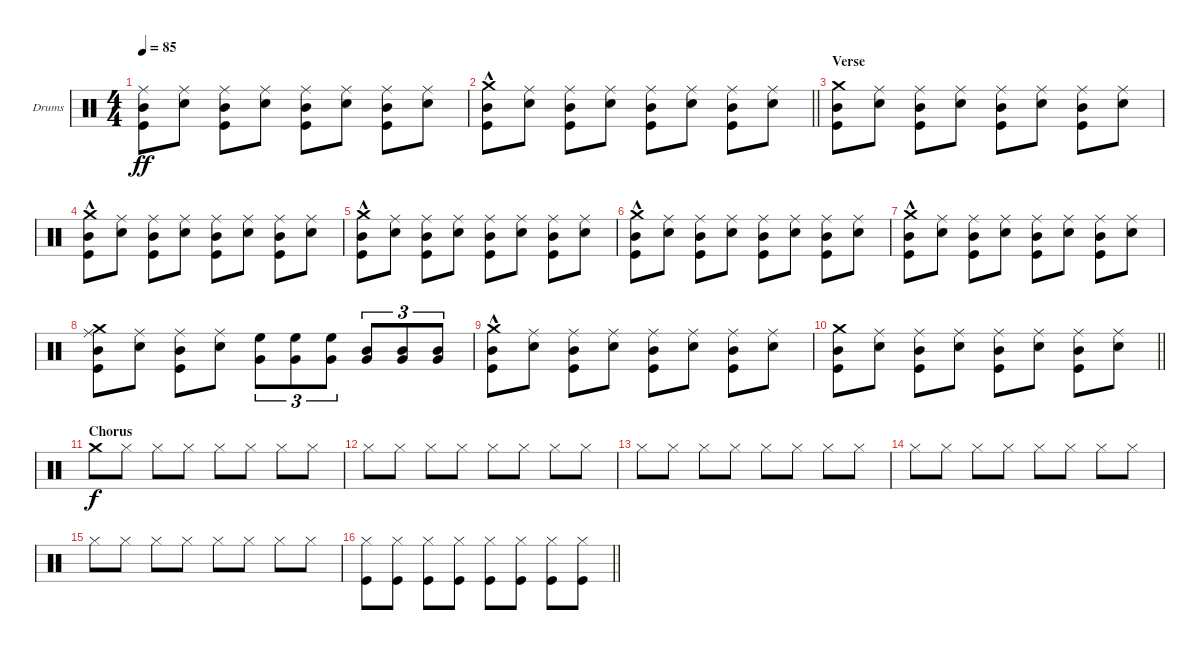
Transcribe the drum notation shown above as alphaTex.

\bracketExtendMode groupsimilarinstruments
\firstSystemTrackNameOrientation horizontal
\otherSystemsTrackNameOrientation horizontal
\track ("Drumkit" "Drums") {instrument percussion}
\staff {score}
\articulation defaults
\ts (4 4)
\tempo 85
\clef neutral
\ks c
("Kick (hit)" "Mid Tom (hit)" "Ride (middle)").8{dy ff} ("Ride (middle)" "Snare (hit) 2").8 ("Ride (middle)" "Kick (hit)" "Mid Tom (hit)").8 ("Ride (middle)" "Snare (hit) 2").8 ("Ride (middle)" "Kick (hit)" "Mid Tom (hit)").8 ("Ride (middle)" "Snare (hit) 2").8 ("Ride (middle)" "Kick (hit)" "Mid Tom (hit)").8 ("Ride (middle)" "Snare (hit) 2").8 |
\barLineRight lightlight
("Crash medium (hit)"{hac} "Kick (hit)" "Mid Tom (hit)").8 ("Ride (middle)" "Snare (hit) 2").8 ("Ride (middle)" "Kick (hit)" "Mid Tom (hit)").8 ("Ride (middle)" "Snare (hit) 2").8 ("Ride (middle)" "Kick (hit)" "Mid Tom (hit)").8 ("Ride (middle)" "Snare (hit) 2").8 ("Ride (middle)" "Kick (hit)" "Mid Tom (hit)").8 ("Ride (middle)" "Snare (hit) 2").8 |
\section ("" "Verse")
("Crash medium (hit)" "Kick (hit)" "Mid Tom (hit)").8 ("Ride (middle)" "Snare (hit) 2").8 ("Ride (middle)" "Kick (hit)" "Mid Tom (hit)").8 ("Ride (middle)" "Snare (hit) 2").8 ("Ride (middle)" "Kick (hit)" "Mid Tom (hit)").8 ("Ride (middle)" "Snare (hit) 2").8 ("Ride (middle)" "Kick (hit)" "Mid Tom (hit)").8 ("Ride (middle)" "Snare (hit) 2").8 |
("Crash medium (hit)"{hac} "Kick (hit)" "Mid Tom (hit)").8 ("Ride (middle)" "Snare (hit) 2").8 ("Ride (middle)" "Kick (hit)" "Mid Tom (hit)").8 ("Ride (middle)" "Snare (hit) 2").8 ("Ride (middle)" "Kick (hit)" "Mid Tom (hit)").8 ("Ride (middle)" "Snare (hit) 2").8 ("Ride (middle)" "Kick (hit)" "Mid Tom (hit)").8 ("Ride (middle)" "Snare (hit) 2").8 |
("Crash medium (hit)"{hac} "Kick (hit)" "Mid Tom (hit)").8 ("Ride (middle)" "Snare (hit) 2").8 ("Ride (middle)" "Kick (hit)" "Mid Tom (hit)").8 ("Ride (middle)" "Snare (hit) 2").8 ("Ride (middle)" "Kick (hit)" "Mid Tom (hit)").8 ("Ride (middle)" "Snare (hit) 2").8 ("Ride (middle)" "Kick (hit)" "Mid Tom (hit)").8 ("Ride (middle)" "Snare (hit) 2").8 |
("Crash medium (hit)"{hac} "Kick (hit)" "Mid Tom (hit)").8 ("Ride (middle)" "Snare (hit) 2").8 ("Ride (middle)" "Kick (hit)" "Mid Tom (hit)").8 ("Ride (middle)" "Snare (hit) 2").8 ("Ride (middle)" "Kick (hit)" "Mid Tom (hit)").8 ("Ride (middle)" "Snare (hit) 2").8 ("Ride (middle)" "Kick (hit)" "Mid Tom (hit)").8 ("Ride (middle)" "Snare (hit) 2").8 |
("Crash medium (hit)"{hac} "Kick (hit)" "Mid Tom (hit)").8 ("Ride (middle)" "Snare (hit) 2").8 ("Ride (middle)" "Kick (hit)" "Mid Tom (hit)").8 ("Ride (middle)" "Snare (hit) 2").8 ("Ride (middle)" "Kick (hit)" "Mid Tom (hit)").8 ("Ride (middle)" "Snare (hit) 2").8 ("Ride (middle)" "Kick (hit)" "Mid Tom (hit)").8 ("Ride (middle)" "Snare (hit) 2").8 |
("Ride (middle)" "Kick (hit)" "Mid Tom (hit)" "Crash medium (hit)").8 ("Ride (middle)" "Snare (hit) 2").8 ("Ride (middle)" "Kick (hit)" "Mid Tom (hit)").8 ("Ride (middle)" "Snare (hit) 2").8 ("High Floor Tom (hit)" "Very Low Tom (hit)").8{tu (3 2)} ("High Floor Tom (hit)" "Very Low Tom (hit)").8{tu (3 2)} ("High Floor Tom (hit)" "Very Low Tom (hit)").8{tu (3 2)} ("Mid Tom (hit)" "Very Low Tom (hit)").8{tu (3 2)} ("Mid Tom (hit)" "Very Low Tom (hit)").8{tu (3 2)} ("Mid Tom (hit)" "Very Low Tom (hit)").8{tu (3 2)} |
("Crash medium (hit)"{hac} "Kick (hit)" "Mid Tom (hit)").8 ("Ride (middle)" "Snare (hit) 2").8 ("Ride (middle)" "Kick (hit)" "Mid Tom (hit)").8 ("Ride (middle)" "Snare (hit) 2").8 ("Ride (middle)" "Kick (hit)" "Mid Tom (hit)").8 ("Ride (middle)" "Snare (hit) 2").8 ("Ride (middle)" "Kick (hit)" "Mid Tom (hit)").8 ("Ride (middle)" "Snare (hit) 2").8 |
\barLineRight lightlight
("Crash medium (hit)" "Kick (hit)" "Mid Tom (hit)").8 ("Ride (middle)" "Snare (hit) 2").8 ("Ride (middle)" "Kick (hit)" "Mid Tom (hit)").8 ("Ride (middle)" "Snare (hit) 2").8 ("Ride (middle)" "Kick (hit)" "Mid Tom (hit)").8 ("Ride (middle)" "Snare (hit) 2").8 ("Ride (middle)" "Kick (hit)" "Mid Tom (hit)").8 ("Ride (middle)" "Snare (hit) 2").8 |
\section ("" "Chorus")
"Crash medium (hit)".8{dy f} "Hi-Hat (closed)".8 "Hi-Hat (closed)".8 "Hi-Hat (closed)".8 "Hi-Hat (closed)".8 "Hi-Hat (closed)".8 "Hi-Hat (closed)".8 "Hi-Hat (closed)".8 |
"Hi-Hat (closed)".8 "Hi-Hat (closed)".8 "Hi-Hat (closed)".8 "Hi-Hat (closed)".8 "Hi-Hat (closed)".8 "Hi-Hat (closed)".8 "Hi-Hat (closed)".8 "Hi-Hat (closed)".8 |
"Hi-Hat (closed)".8 "Hi-Hat (closed)".8 "Hi-Hat (closed)".8 "Hi-Hat (closed)".8 "Hi-Hat (closed)".8 "Hi-Hat (closed)".8 "Hi-Hat (closed)".8 "Hi-Hat (closed)".8 |
"Hi-Hat (closed)".8 "Hi-Hat (closed)".8 "Hi-Hat (closed)".8 "Hi-Hat (closed)".8 "Hi-Hat (closed)".8 "Hi-Hat (closed)".8 "Hi-Hat (closed)".8 "Hi-Hat (closed)".8 |
"Hi-Hat (closed)".8 "Hi-Hat (closed)".8 "Hi-Hat (closed)".8 "Hi-Hat (closed)".8 "Hi-Hat (closed)".8 "Hi-Hat (closed)".8 "Hi-Hat (closed)".8 "Hi-Hat (closed)".8 |
\barLineRight lightlight
("Hi-Hat (closed)" "Kick (hit)").8 ("Hi-Hat (closed)" "Kick (hit)").8 ("Hi-Hat (closed)" "Kick (hit)").8 ("Hi-Hat (closed)" "Kick (hit)").8 ("Hi-Hat (closed)" "Kick (hit)").8 ("Hi-Hat (closed)" "Kick (hit)").8 ("Hi-Hat (closed)" "Kick (hit)").8 ("Hi-Hat (closed)" "Kick (hit)").8
